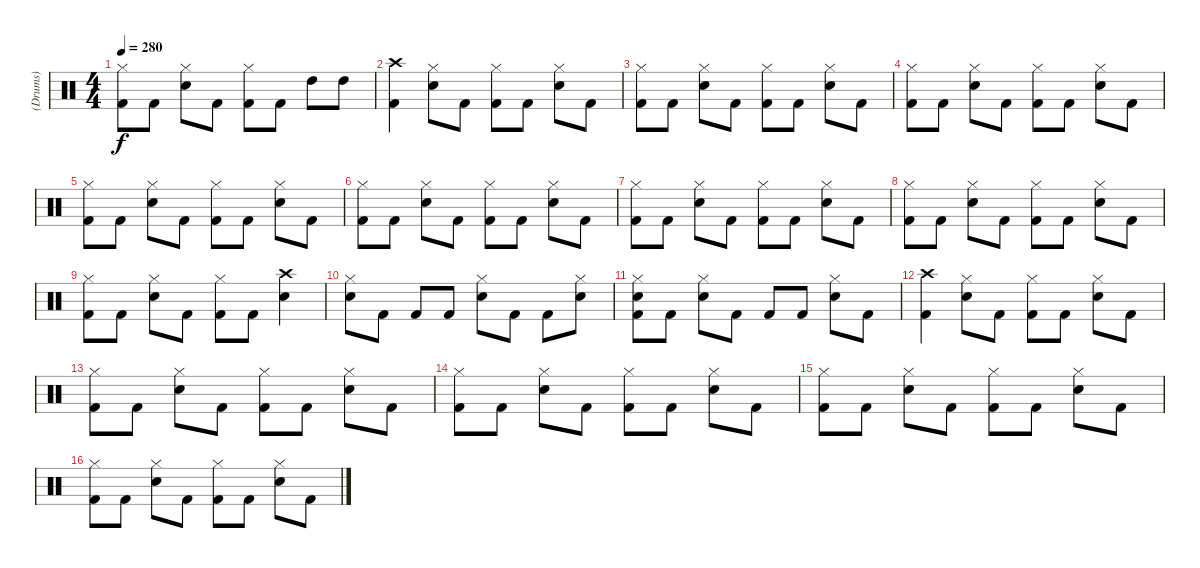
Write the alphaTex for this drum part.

\track ("(Drums)" "(Drums)") {instrument percussion}
\staff {score}
\articulation defaults
\ts (4 4)
\tempo 280
\clef neutral
\ks c
("Hi-Hat (closed)" "Kick (hit) 2").8{dy f} "Kick (hit) 2".8 ("Hi-Hat (closed)" "Snare (hit) 2").8 "Kick (hit) 2".8 ("Hi-Hat (closed)" "Kick (hit) 2").8 "Kick (hit) 2".8 "High Tom (hit)".8 "High Tom (hit)".8 |
("Kick (hit) 2" "Crash high (hit)").4 ("Hi-Hat (closed)" "Snare (hit) 2").8 "Kick (hit) 2".8 ("Hi-Hat (closed)" "Kick (hit) 2").8 "Kick (hit) 2".8 ("Hi-Hat (closed)" "Snare (hit) 2").8 "Kick (hit) 2".8 |
("Hi-Hat (closed)" "Kick (hit) 2").8 "Kick (hit) 2".8 ("Hi-Hat (closed)" "Snare (hit) 2").8 "Kick (hit) 2".8 ("Hi-Hat (closed)" "Kick (hit) 2").8 "Kick (hit) 2".8 ("Hi-Hat (closed)" "Snare (hit) 2").8 "Kick (hit) 2".8 |
("Hi-Hat (closed)" "Kick (hit) 2").8 "Kick (hit) 2".8 ("Hi-Hat (closed)" "Snare (hit) 2").8 "Kick (hit) 2".8 ("Hi-Hat (closed)" "Kick (hit) 2").8 "Kick (hit) 2".8 ("Hi-Hat (closed)" "Snare (hit) 2").8 "Kick (hit) 2".8 |
("Hi-Hat (closed)" "Kick (hit) 2").8 "Kick (hit) 2".8 ("Hi-Hat (closed)" "Snare (hit) 2").8 "Kick (hit) 2".8 ("Hi-Hat (closed)" "Kick (hit) 2").8 "Kick (hit) 2".8 ("Hi-Hat (closed)" "Snare (hit) 2").8 "Kick (hit) 2".8 |
("Hi-Hat (closed)" "Kick (hit) 2").8 "Kick (hit) 2".8 ("Hi-Hat (closed)" "Snare (hit) 2").8 "Kick (hit) 2".8 ("Hi-Hat (closed)" "Kick (hit) 2").8 "Kick (hit) 2".8 ("Hi-Hat (closed)" "Snare (hit) 2").8 "Kick (hit) 2".8 |
("Hi-Hat (closed)" "Kick (hit) 2").8 "Kick (hit) 2".8 ("Hi-Hat (closed)" "Snare (hit) 2").8 "Kick (hit) 2".8 ("Hi-Hat (closed)" "Kick (hit) 2").8 "Kick (hit) 2".8 ("Hi-Hat (closed)" "Snare (hit) 2").8 "Kick (hit) 2".8 |
("Hi-Hat (closed)" "Kick (hit) 2").8 "Kick (hit) 2".8 ("Hi-Hat (closed)" "Snare (hit) 2").8 "Kick (hit) 2".8 ("Hi-Hat (closed)" "Kick (hit) 2").8 "Kick (hit) 2".8 ("Hi-Hat (closed)" "Snare (hit) 2").8 "Kick (hit) 2".8 |
("Hi-Hat (closed)" "Kick (hit) 2").8 "Kick (hit) 2".8 ("Hi-Hat (closed)" "Snare (hit) 2").8 "Kick (hit) 2".8 ("Hi-Hat (closed)" "Kick (hit) 2").8 "Kick (hit) 2".8 ("Snare (hit) 2" "Crash high (hit)").4 |
("Snare (hit) 2" "Hi-Hat (closed)").8 "Kick (hit) 2".8 "Kick (hit) 2".8 "Kick (hit) 2".8 ("Snare (hit) 2" "Hi-Hat (closed)").8 "Kick (hit) 2".8 "Kick (hit) 2".8 ("Snare (hit) 2" "Hi-Hat (closed)").8 |
("Kick (hit) 2" "Snare (hit) 2" "Hi-Hat (closed)").8 "Kick (hit) 2".8 ("Snare (hit) 2" "Hi-Hat (closed)").8 "Kick (hit) 2".8 "Kick (hit) 2".8 "Kick (hit) 2".8 ("Snare (hit) 2" "Hi-Hat (closed)").8 "Kick (hit) 2".8 |
("Kick (hit) 2" "Crash high (hit)").4 ("Hi-Hat (closed)" "Snare (hit) 2").8 "Kick (hit) 2".8 ("Hi-Hat (closed)" "Kick (hit) 2").8 "Kick (hit) 2".8 ("Hi-Hat (closed)" "Snare (hit) 2").8 "Kick (hit) 2".8 |
("Hi-Hat (closed)" "Kick (hit) 2").8 "Kick (hit) 2".8 ("Hi-Hat (closed)" "Snare (hit) 2").8 "Kick (hit) 2".8 ("Hi-Hat (closed)" "Kick (hit) 2").8 "Kick (hit) 2".8 ("Hi-Hat (closed)" "Snare (hit) 2").8 "Kick (hit) 2".8 |
("Hi-Hat (closed)" "Kick (hit) 2").8 "Kick (hit) 2".8 ("Hi-Hat (closed)" "Snare (hit) 2").8 "Kick (hit) 2".8 ("Hi-Hat (closed)" "Kick (hit) 2").8 "Kick (hit) 2".8 ("Hi-Hat (closed)" "Snare (hit) 2").8 "Kick (hit) 2".8 |
("Hi-Hat (closed)" "Kick (hit) 2").8 "Kick (hit) 2".8 ("Hi-Hat (closed)" "Snare (hit) 2").8 "Kick (hit) 2".8 ("Hi-Hat (closed)" "Kick (hit) 2").8 "Kick (hit) 2".8 ("Hi-Hat (closed)" "Snare (hit) 2").8 "Kick (hit) 2".8 |
("Hi-Hat (closed)" "Kick (hit) 2").8 "Kick (hit) 2".8 ("Hi-Hat (closed)" "Snare (hit) 2").8 "Kick (hit) 2".8 ("Hi-Hat (closed)" "Kick (hit) 2").8 "Kick (hit) 2".8 ("Hi-Hat (closed)" "Snare (hit) 2").8 "Kick (hit) 2".8
